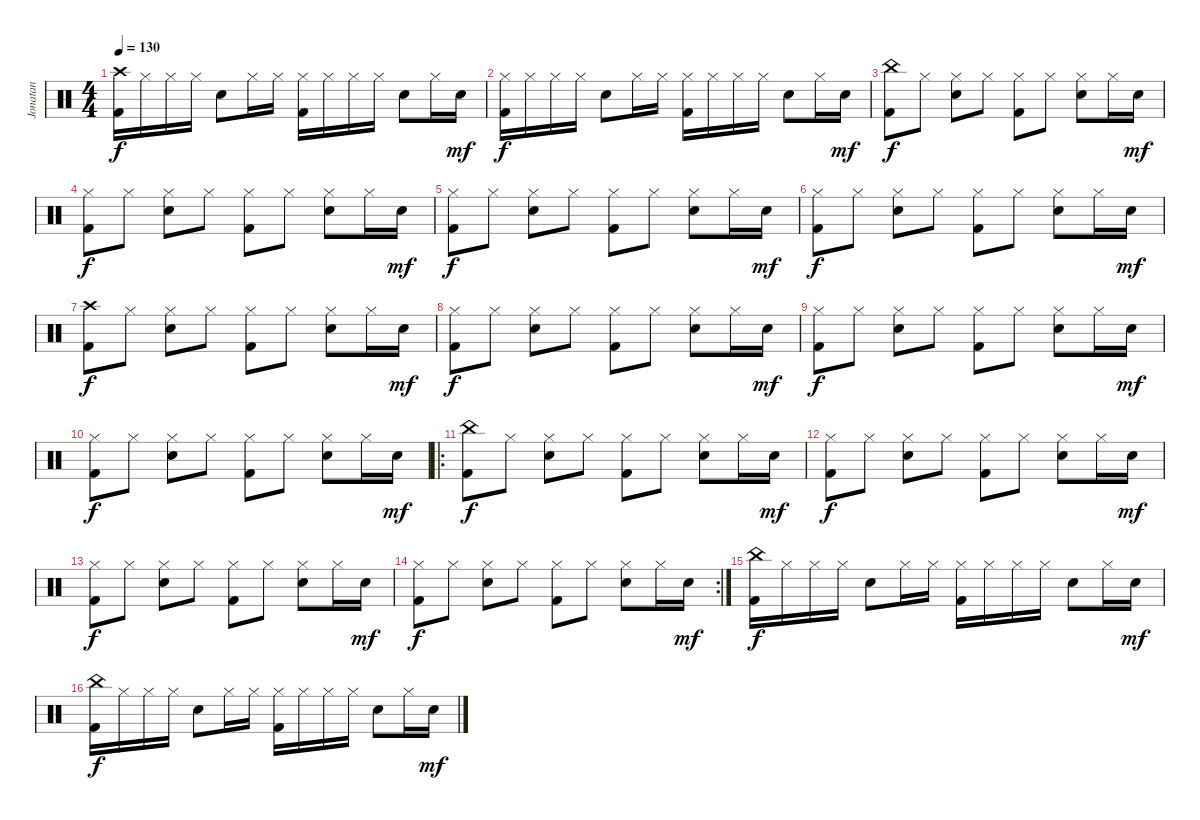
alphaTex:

\track ("Jonatan" "Jonatan") {instrument percussion}
\staff {score}
\articulation defaults
\ts (4 4)
\tempo 130
\clef neutral
\ks c
("Crash high (hit)" "Kick (hit) 2").16{dy f} "Hi-Hat (closed)".16 "Hi-Hat (closed)".16 "Hi-Hat (closed)".16 "Electric Snare (hit)".8 "Hi-Hat (closed)".16 "Hi-Hat (closed)".16 ("Hi-Hat (closed)" "Kick (hit) 2").16 "Hi-Hat (closed)".16 "Hi-Hat (closed)".16 "Hi-Hat (closed)".16 "Electric Snare (hit)".8 "Hi-Hat (closed)".16 "Electric Snare (hit)".16{dy mf} |
("Hi-Hat (closed)" "Kick (hit) 2").16{dy f} "Hi-Hat (closed)".16 "Hi-Hat (closed)".16 "Hi-Hat (closed)".16 "Electric Snare (hit)".8 "Hi-Hat (closed)".16 "Hi-Hat (closed)".16 ("Hi-Hat (closed)" "Kick (hit) 2").16 "Hi-Hat (closed)".16 "Hi-Hat (closed)".16 "Hi-Hat (closed)".16 "Electric Snare (hit)".8 "Hi-Hat (closed)".16 "Electric Snare (hit)".16{dy mf} |
("China (hit)" "Kick (hit) 2").8{dy f} "Hi-Hat (closed)".8 ("Hi-Hat (closed)" "Electric Snare (hit)").8 "Hi-Hat (closed)".8 ("Hi-Hat (closed)" "Kick (hit) 2").8 "Hi-Hat (closed)".8 ("Hi-Hat (closed)" "Electric Snare (hit)").8 "Hi-Hat (closed)".16 "Electric Snare (hit)".16{dy mf} |
("Hi-Hat (closed)" "Kick (hit) 2").8{dy f} "Hi-Hat (closed)".8 ("Hi-Hat (closed)" "Electric Snare (hit)").8 "Hi-Hat (closed)".8 ("Hi-Hat (closed)" "Kick (hit) 2").8 "Hi-Hat (closed)".8 ("Hi-Hat (closed)" "Electric Snare (hit)").8 "Hi-Hat (closed)".16 "Electric Snare (hit)".16{dy mf} |
("Hi-Hat (closed)" "Kick (hit) 2").8{dy f} "Hi-Hat (closed)".8 ("Hi-Hat (closed)" "Electric Snare (hit)").8 "Hi-Hat (closed)".8 ("Hi-Hat (closed)" "Kick (hit) 2").8 "Hi-Hat (closed)".8 ("Hi-Hat (closed)" "Electric Snare (hit)").8 "Hi-Hat (closed)".16 "Electric Snare (hit)".16{dy mf} |
("Hi-Hat (closed)" "Kick (hit) 2").8{dy f} "Hi-Hat (closed)".8 ("Hi-Hat (closed)" "Electric Snare (hit)").8 "Hi-Hat (closed)".8 ("Hi-Hat (closed)" "Kick (hit) 2").8 "Hi-Hat (closed)".8 ("Hi-Hat (closed)" "Electric Snare (hit)").8 "Hi-Hat (closed)".16 "Electric Snare (hit)".16{dy mf} |
("Crash high (hit)" "Kick (hit) 2").8{dy f} "Hi-Hat (closed)".8 ("Hi-Hat (closed)" "Electric Snare (hit)").8 "Hi-Hat (closed)".8 ("Hi-Hat (closed)" "Kick (hit) 2").8 "Hi-Hat (closed)".8 ("Hi-Hat (closed)" "Electric Snare (hit)").8 "Hi-Hat (closed)".16 "Electric Snare (hit)".16{dy mf} |
("Hi-Hat (closed)" "Kick (hit) 2").8{dy f} "Hi-Hat (closed)".8 ("Hi-Hat (closed)" "Electric Snare (hit)").8 "Hi-Hat (closed)".8 ("Hi-Hat (closed)" "Kick (hit) 2").8 "Hi-Hat (closed)".8 ("Hi-Hat (closed)" "Electric Snare (hit)").8 "Hi-Hat (closed)".16 "Electric Snare (hit)".16{dy mf} |
("Hi-Hat (closed)" "Kick (hit) 2").8{dy f} "Hi-Hat (closed)".8 ("Hi-Hat (closed)" "Electric Snare (hit)").8 "Hi-Hat (closed)".8 ("Hi-Hat (closed)" "Kick (hit) 2").8 "Hi-Hat (closed)".8 ("Hi-Hat (closed)" "Electric Snare (hit)").8 "Hi-Hat (closed)".16 "Electric Snare (hit)".16{dy mf} |
("Hi-Hat (closed)" "Kick (hit) 2").8{dy f} "Hi-Hat (closed)".8 ("Hi-Hat (closed)" "Electric Snare (hit)").8 "Hi-Hat (closed)".8 ("Hi-Hat (closed)" "Kick (hit) 2").8 "Hi-Hat (closed)".8 ("Hi-Hat (closed)" "Electric Snare (hit)").8 "Hi-Hat (closed)".16 "Electric Snare (hit)".16{dy mf} |
\ro
("China (hit)" "Kick (hit) 2").8{dy f} "Hi-Hat (closed)".8 ("Hi-Hat (closed)" "Electric Snare (hit)").8 "Hi-Hat (closed)".8 ("Hi-Hat (closed)" "Kick (hit) 2").8 "Hi-Hat (closed)".8 ("Hi-Hat (closed)" "Electric Snare (hit)").8 "Hi-Hat (closed)".16 "Electric Snare (hit)".16{dy mf} |
("Hi-Hat (closed)" "Kick (hit) 2").8{dy f} "Hi-Hat (closed)".8 ("Hi-Hat (closed)" "Electric Snare (hit)").8 "Hi-Hat (closed)".8 ("Hi-Hat (closed)" "Kick (hit) 2").8 "Hi-Hat (closed)".8 ("Hi-Hat (closed)" "Electric Snare (hit)").8 "Hi-Hat (closed)".16 "Electric Snare (hit)".16{dy mf} |
("Hi-Hat (closed)" "Kick (hit) 2").8{dy f} "Hi-Hat (closed)".8 ("Hi-Hat (closed)" "Electric Snare (hit)").8 "Hi-Hat (closed)".8 ("Hi-Hat (closed)" "Kick (hit) 2").8 "Hi-Hat (closed)".8 ("Hi-Hat (closed)" "Electric Snare (hit)").8 "Hi-Hat (closed)".16 "Electric Snare (hit)".16{dy mf} |
\rc 2
("Hi-Hat (closed)" "Kick (hit) 2").8{dy f} "Hi-Hat (closed)".8 ("Hi-Hat (closed)" "Electric Snare (hit)").8 "Hi-Hat (closed)".8 ("Hi-Hat (closed)" "Kick (hit) 2").8 "Hi-Hat (closed)".8 ("Hi-Hat (closed)" "Electric Snare (hit)").8 "Hi-Hat (closed)".16 "Electric Snare (hit)".16{dy mf} |
("China (hit)" "Kick (hit) 2").16{dy f} "Hi-Hat (closed)".16 "Hi-Hat (closed)".16 "Hi-Hat (closed)".16 "Electric Snare (hit)".8 "Hi-Hat (closed)".16 "Hi-Hat (closed)".16 ("Hi-Hat (closed)" "Kick (hit) 2").16 "Hi-Hat (closed)".16 "Hi-Hat (closed)".16 "Hi-Hat (closed)".16 "Electric Snare (hit)".8 "Hi-Hat (closed)".16 "Electric Snare (hit)".16{dy mf} |
("China (hit)" "Kick (hit) 2").16{dy f} "Hi-Hat (closed)".16 "Hi-Hat (closed)".16 "Hi-Hat (closed)".16 "Electric Snare (hit)".8 "Hi-Hat (closed)".16 "Hi-Hat (closed)".16 ("Hi-Hat (closed)" "Kick (hit) 2").16 "Hi-Hat (closed)".16 "Hi-Hat (closed)".16 "Hi-Hat (closed)".16 "Electric Snare (hit)".8 "Hi-Hat (closed)".16 "Electric Snare (hit)".16{dy mf}
